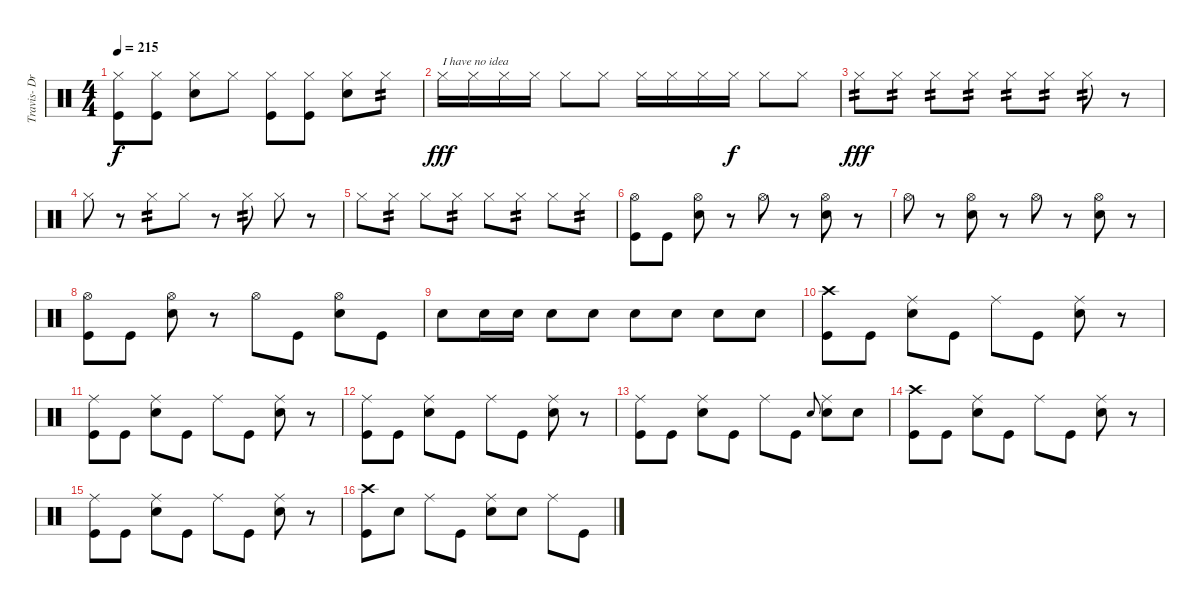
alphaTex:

\track ("Travis- Drums" "Travis- Dr") {instrument percussion}
\staff {score}
\articulation defaults
\ts (4 4)
\tempo 215
\clef neutral
\ks c
("Kick (hit)" "Hi-Hat (closed)").8{dy f} ("Kick (hit)" "Hi-Hat (closed)").8 ("Electric Snare (hit)" "Hi-Hat (closed)").8 "Hi-Hat (closed)".8 ("Kick (hit)" "Hi-Hat (closed)").8 ("Kick (hit)" "Hi-Hat (closed)").8 ("Electric Snare (hit)" "Hi-Hat (closed)").8 "Hi-Hat (closed)".8{tp 2} |
"Hi-Hat (closed)".16{txt "I have no idea" dy fff} "Hi-Hat (closed)".16 "Hi-Hat (closed)".16 "Hi-Hat (closed)".16 "Hi-Hat (closed)".8 "Hi-Hat (closed)".8 "Hi-Hat (closed)".16 "Hi-Hat (closed)".16 "Hi-Hat (closed)".16 "Hi-Hat (closed)".16{dy f} "Hi-Hat (closed)".8 "Hi-Hat (closed)".8 |
"Hi-Hat (closed)".8{tp 2 dy fff} "Hi-Hat (closed)".8{tp 2} "Hi-Hat (closed)".8{tp 2} "Hi-Hat (closed)".8{tp 2} "Hi-Hat (closed)".8{tp 2} "Hi-Hat (closed)".8{tp 2} "Hi-Hat (closed)".8{tp 2} r.8 |
"Hi-Hat (closed)".8 r.8 "Hi-Hat (closed)".8{tp 2} "Hi-Hat (closed)".8 r.8 "Hi-Hat (closed)".8{tp 2} "Hi-Hat (closed)".8 r.8 |
"Hi-Hat (closed)".8 "Hi-Hat (closed)".8{tp 2} "Hi-Hat (closed)".8 "Hi-Hat (closed)".8{tp 2} "Hi-Hat (closed)".8 "Hi-Hat (closed)".8{tp 2} "Hi-Hat (closed)".8 "Hi-Hat (closed)".8{tp 2} |
("Hi-Hat (open)" "Kick (hit)").8 "Kick (hit)".8 ("Electric Snare (hit)" "Hi-Hat (open)").8 r.8 "Hi-Hat (open)".8 r.8 ("Electric Snare (hit)" "Hi-Hat (open)").8 r.8 |
"Hi-Hat (open)".8 r.8 ("Electric Snare (hit)" "Hi-Hat (open)").8 r.8 "Hi-Hat (open)".8 r.8 ("Hi-Hat (open)" "Electric Snare (hit)").8 r.8 |
("Hi-Hat (open)" "Kick (hit)").8 "Kick (hit)".8 ("Electric Snare (hit)" "Hi-Hat (open)").8 r.8 "Hi-Hat (open)".8 "Kick (hit)".8 ("Electric Snare (hit)" "Hi-Hat (open)").8 "Kick (hit)".8 |
"Electric Snare (hit)".8 "Electric Snare (hit)".16 "Electric Snare (hit)".16 "Electric Snare (hit)".8 "Electric Snare (hit)".8 "Electric Snare (hit)".8 "Electric Snare (hit)".8 "Electric Snare (hit)".8 "Electric Snare (hit)".8 |
("Crash high (hit)" "Kick (hit)").8 "Kick (hit)".8 ("Ride (middle)" "Electric Snare (hit)").8 "Kick (hit)".8 "Ride (middle)".8 "Kick (hit)".8 ("Ride (middle)" "Electric Snare (hit)").8 r.8 |
("Ride (middle)" "Kick (hit)").8 "Kick (hit)".8 ("Ride (middle)" "Electric Snare (hit)").8 "Kick (hit)".8 "Ride (middle)".8 "Kick (hit)".8 ("Ride (middle)" "Electric Snare (hit)").8 r.8 |
("Ride (middle)" "Kick (hit)").8 "Kick (hit)".8 ("Ride (middle)" "Electric Snare (hit)").8 "Kick (hit)".8 "Ride (middle)".8 "Kick (hit)".8 ("Ride (middle)" "Electric Snare (hit)").8 r.8 |
("Ride (middle)" "Kick (hit)").8 "Kick (hit)".8 ("Ride (middle)" "Electric Snare (hit)").8 "Kick (hit)".8 "Ride (middle)".8 "Kick (hit)".8 "Electric Snare (hit)".8{gr onbeat} ("Ride (middle)" "Electric Snare (hit)").8 "Electric Snare (hit)".8 |
("Crash high (hit)" "Kick (hit)").8 "Kick (hit)".8 ("Ride (middle)" "Electric Snare (hit)").8 "Kick (hit)".8 "Ride (middle)".8 "Kick (hit)".8 ("Ride (middle)" "Electric Snare (hit)").8 r.8 |
("Ride (middle)" "Kick (hit)").8 "Kick (hit)".8 ("Ride (middle)" "Electric Snare (hit)").8 "Kick (hit)".8 "Ride (middle)".8 "Kick (hit)".8 ("Ride (middle)" "Electric Snare (hit)").8 r.8 |
("Crash high (hit)" "Kick (hit)").8 "Electric Snare (hit)".8 "Ride (middle)".8 "Kick (hit)".8 ("Ride (middle)" "Electric Snare (hit)").8 "Electric Snare (hit)".8 "Ride (middle)".8 "Kick (hit)".8
